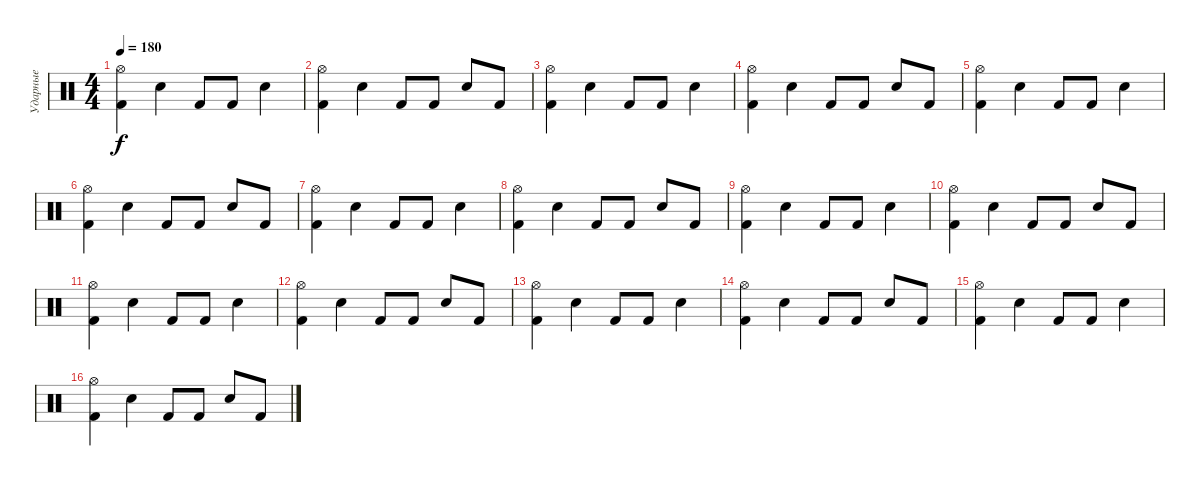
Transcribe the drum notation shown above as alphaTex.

\track ("Ударные" "Ударные") {instrument percussion}
\staff
\articulation defaults
\ts (4 4)
\tempo 180
\clef neutral
\ks c
("Kick (hit) 2" "Hi-Hat (open)").4{dy f} "Electric Snare (hit)".4 "Kick (hit) 2".8 "Kick (hit) 2".8 "Electric Snare (hit)".4 |
("Kick (hit) 2" "Hi-Hat (open)").4 "Electric Snare (hit)".4 "Kick (hit) 2".8 "Kick (hit) 2".8 "Electric Snare (hit)".8 "Kick (hit) 2".8 |
("Kick (hit) 2" "Hi-Hat (open)").4 "Electric Snare (hit)".4 "Kick (hit) 2".8 "Kick (hit) 2".8 "Electric Snare (hit)".4 |
("Kick (hit) 2" "Hi-Hat (open)").4 "Electric Snare (hit)".4 "Kick (hit) 2".8 "Kick (hit) 2".8 "Electric Snare (hit)".8 "Kick (hit) 2".8 |
("Kick (hit) 2" "Hi-Hat (open)").4 "Electric Snare (hit)".4 "Kick (hit) 2".8 "Kick (hit) 2".8 "Electric Snare (hit)".4 |
("Kick (hit) 2" "Hi-Hat (open)").4 "Electric Snare (hit)".4 "Kick (hit) 2".8 "Kick (hit) 2".8 "Electric Snare (hit)".8 "Kick (hit) 2".8 |
("Kick (hit) 2" "Hi-Hat (open)").4 "Electric Snare (hit)".4 "Kick (hit) 2".8 "Kick (hit) 2".8 "Electric Snare (hit)".4 |
("Kick (hit) 2" "Hi-Hat (open)").4 "Electric Snare (hit)".4 "Kick (hit) 2".8 "Kick (hit) 2".8 "Electric Snare (hit)".8 "Kick (hit) 2".8 |
("Kick (hit) 2" "Hi-Hat (open)").4 "Electric Snare (hit)".4 "Kick (hit) 2".8 "Kick (hit) 2".8 "Electric Snare (hit)".4 |
("Kick (hit) 2" "Hi-Hat (open)").4 "Electric Snare (hit)".4 "Kick (hit) 2".8 "Kick (hit) 2".8 "Electric Snare (hit)".8 "Kick (hit) 2".8 |
("Kick (hit) 2" "Hi-Hat (open)").4 "Electric Snare (hit)".4 "Kick (hit) 2".8 "Kick (hit) 2".8 "Electric Snare (hit)".4 |
("Kick (hit) 2" "Hi-Hat (open)").4 "Electric Snare (hit)".4 "Kick (hit) 2".8 "Kick (hit) 2".8 "Electric Snare (hit)".8 "Kick (hit) 2".8 |
("Kick (hit) 2" "Hi-Hat (open)").4 "Electric Snare (hit)".4 "Kick (hit) 2".8 "Kick (hit) 2".8 "Electric Snare (hit)".4 |
("Kick (hit) 2" "Hi-Hat (open)").4 "Electric Snare (hit)".4 "Kick (hit) 2".8 "Kick (hit) 2".8 "Electric Snare (hit)".8 "Kick (hit) 2".8 |
("Kick (hit) 2" "Hi-Hat (open)").4 "Electric Snare (hit)".4 "Kick (hit) 2".8 "Kick (hit) 2".8 "Electric Snare (hit)".4 |
("Kick (hit) 2" "Hi-Hat (open)").4 "Electric Snare (hit)".4 "Kick (hit) 2".8 "Kick (hit) 2".8 "Electric Snare (hit)".8 "Kick (hit) 2".8
